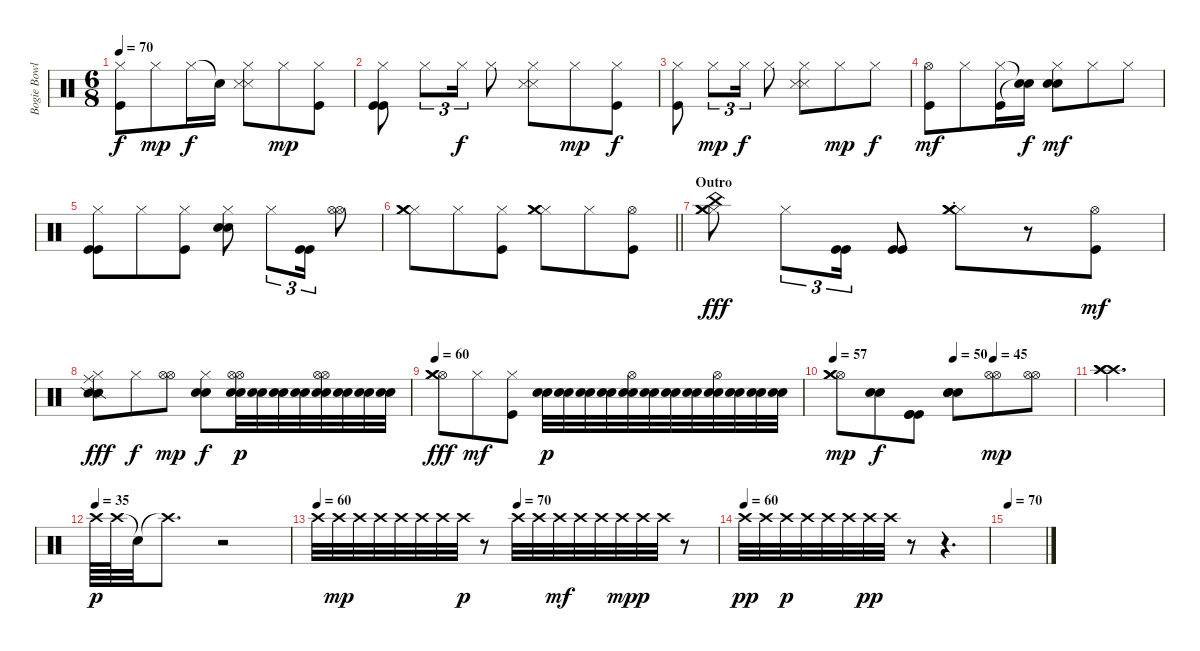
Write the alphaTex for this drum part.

\track ("Bogie Bowles" "Bogie Bowl") {instrument percussion}
\staff {score}
\articulation defaults
\ts (6 8)
\tempo 70
\clef neutral
\ks c
("Hi-Hat (closed)" "Kick (hit)").8{dy f} "Hi-Hat (closed)".8{dy mp} "Hi-Hat (closed)".16{dy f} "Snare (hit)"{t}.16 ("Hi-Hat (closed)" "Snare (side stick) 3" "Snare (side stick) 3").8 "Hi-Hat (closed)".8{dy mp} ("Hi-Hat (closed)" "Kick (hit)").8 |
("Hi-Hat (closed)" "Kick (hit)" "Kick (hit)").8 "Hi-Hat (closed)".8{tu (3 2)} "Hi-Hat (closed)".16{tu (3 2) dy f} "Hi-Hat (closed)".8 ("Hi-Hat (closed)" "Snare (side stick) 3" "Snare (side stick) 3").8 "Hi-Hat (closed)".8{dy mp} ("Hi-Hat (closed)" "Kick (hit)").8{dy f} |
("Hi-Hat (closed)" "Kick (hit)").8 "Hi-Hat (closed)".8{tu (3 2) dy mp} "Hi-Hat (closed)".16{tu (3 2) dy f} "Hi-Hat (closed)".8 ("Hi-Hat (closed)" "Snare (side stick) 3" "Snare (side stick) 3").8 "Hi-Hat (closed)".8{dy mp} "Hi-Hat (closed)".8{dy f} |
("Hi-Hat (open)" "Kick (hit)").8{dy mf} "Hi-Hat (closed)".8 ("Hi-Hat (closed)" "Kick (hit)").16 ("Snare (hit)"{t} "Snare (hit)"{t}).16{dy f} ("Hi-Hat (closed)" "Snare (hit) 2" "Snare (hit) 2").8{dy mf} "Hi-Hat (closed)".8 "Hi-Hat (closed)".8 |
("Hi-Hat (closed)" "Kick (hit)" "Kick (hit)").8 "Hi-Hat (closed)".8 ("Hi-Hat (closed)" "Kick (hit)").8 ("Hi-Hat (closed)" "Snare (hit) 2" "Snare (hit) 2").8 "Hi-Hat (closed)".8{tu (3 2)} ("Kick (hit)" "Kick (hit)").16{tu (3 2)} ("Hi-Hat (open)" "Hi-Hat (open)").8 |
\barLineRight lightlight
("Hi-Hat (closed)" "Crash medium (hit)" "Crash medium (hit)").8 "Hi-Hat (closed)".8 ("Hi-Hat (closed)" "Kick (hit)").8 ("Hi-Hat (closed)" "Crash medium (hit)" "Crash medium (hit)").8 "Hi-Hat (closed)".8 ("Hi-Hat (open)" "Kick (hit)").8 |
\section ("" "Outro")
("Hi-Hat (closed)" "China (hit)" "Crash medium (hit)" "Crash medium (hit)").8{dy fff volume 16} "Hi-Hat (closed)".8{tu (3 2)} ("Kick (hit)" "Kick (hit)").16{tu (3 2)} ("Kick (hit)" "Kick (hit)").8 ("Hi-Hat (closed)"{st} "Crash medium (hit)"{st} "Crash medium (hit)"{st}).8 r.8 ("Hi-Hat (open)" "Kick (hit)").8{dy mf} |
("Hi-Hat (closed)" "Snare (side stick) 2" "Snare (side stick) 2" "Ride (middle)").8{dy fff} "Hi-Hat (closed)".8{dy f} ("Hi-Hat (open)" "Hi-Hat (open)").8{dy mp} ("Hi-Hat (closed)" "Snare (hit) 2" "Snare (hit) 2").8{dy f} ("Hi-Hat (open)" "Hi-Hat (open)" "Snare (hit) 2" "Snare (hit) 2").32{dy p} ("Snare (hit) 2" "Snare (hit) 2").32 ("Snare (hit) 2" "Snare (hit) 2").32 ("Snare (hit) 2" "Snare (hit) 2").32 ("Hi-Hat (open)" "Hi-Hat (open)" "Snare (hit) 2" "Snare (hit) 2").32 ("Snare (hit) 2" "Snare (hit) 2").32 ("Snare (hit) 2" "Snare (hit) 2").32 ("Snare (hit) 2" "Snare (hit) 2").32 |
\tempo 60
("Hi-Hat (open)" "Crash medium (hit)" "Crash medium (hit)").8{dy fff} "Hi-Hat (closed)".8{dy mf} ("Hi-Hat (closed)" "Kick (hit)").8 ("Snare (hit) 2" "Snare (hit) 2").32{dy p} ("Snare (hit) 2" "Snare (hit) 2").32 ("Snare (hit) 2" "Snare (hit) 2").32 ("Snare (hit) 2" "Snare (hit) 2").32 ("Hi-Hat (open)" "Snare (hit) 2" "Snare (hit) 2").32 ("Snare (hit) 2" "Snare (hit) 2").32 ("Snare (hit) 2" "Snare (hit) 2").32 ("Snare (hit) 2" "Snare (hit) 2").32 ("Hi-Hat (open)" "Snare (hit) 2" "Snare (hit) 2").32 ("Snare (hit) 2" "Snare (hit) 2").32 ("Snare (hit) 2" "Snare (hit) 2").32 ("Snare (hit) 2" "Snare (hit) 2").32 |
\tempo 57
\tempo (50 0.5)
\tempo (45 0.6666666666666666)
("Hi-Hat (open)" "Crash medium (hit)" "Crash medium (hit)").8{dy mp} ("Snare (hit) 2" "Snare (hit) 2").8{dy f} ("Kick (hit)" "Kick (hit)" "Kick (hit)").8 ("Snare (hit) 2" "Snare (hit) 2" "Snare (hit) 2").8 ("Hi-Hat (open)" "Hi-Hat (open)").8{dy mp} ("Hi-Hat (open)" "Hi-Hat (open)").8 |
("Crash high (hit)" "Crash high (hit)" "Crash high (hit)").2{d} |
\tempo (35)
"Crash high (hit)".64{dy p} "Crash high (hit)".64 "Snare (hit)"{t}.32 "Crash high (hit)"{t}.8{d} r.2 |
\tempo 60
\tempo (70 0.5)
"Crash high (hit)".32 "Crash high (hit)".32{dy mp} "Crash high (hit)".32 "Crash high (hit)".32 "Crash high (hit)".32 "Crash high (hit)".32 "Crash high (hit)".32 "Crash high (hit)".32{dy p} r.8 "Crash high (hit)".32 "Crash high (hit)".32 "Crash high (hit)".32{dy mf} "Crash high (hit)".32 "Crash high (hit)".32 "Crash high (hit)".32{dy mp} "Crash high (hit)".32{dy p} "Crash high (hit)".32 r.8 |
\tempo (60)
"Crash high (hit)".32{dy pp} "Crash high (hit)".32 "Crash high (hit)".32{dy p} "Crash high (hit)".32 "Crash high (hit)".32 "Crash high (hit)".32 "Crash high (hit)".32{dy pp} "Crash high (hit)".32 r.8 r.4{d} |
\tempo 70
